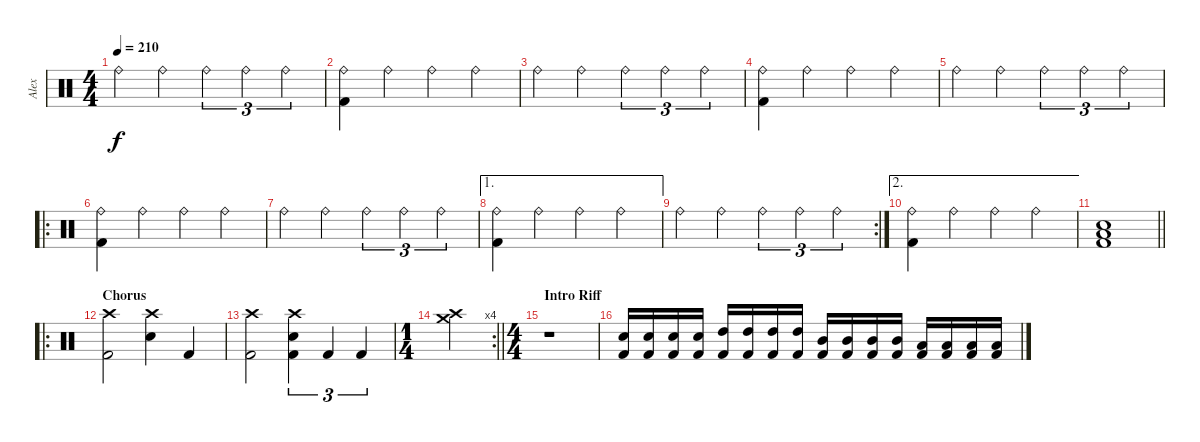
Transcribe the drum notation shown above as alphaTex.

\track ("Alex" "Alex") {instrument percussion}
\staff {score}
\articulation defaults
\ts (4 4)
\tempo 210
\clef neutral
\ks c "Ride (bell)".4{dy f} "Ride (bell)".4 "Ride (bell)".4{tu (3 2)} "Ride (bell)".4{tu (3 2)} "Ride (bell)".4{tu (3 2)}
|
("Ride (bell)" "Kick (hit) 2").4 "Ride (bell)".4 "Ride (bell)".4 "Ride (bell)".4 |
"Ride (bell)".4 "Ride (bell)".4 "Ride (bell)".4{tu (3 2)} "Ride (bell)".4{tu (3 2)} "Ride (bell)".4{tu (3 2)} |
("Ride (bell)" "Kick (hit) 2").4 "Ride (bell)".4 "Ride (bell)".4 "Ride (bell)".4 |
"Ride (bell)".4 "Ride (bell)".4 "Ride (bell)".4{tu (3 2)} "Ride (bell)".4{tu (3 2)} "Ride (bell)".4{tu (3 2)} |
\ro
("Ride (bell)" "Kick (hit) 2").4 "Ride (bell)".4 "Ride (bell)".4 "Ride (bell)".4 |
"Ride (bell)".4 "Ride (bell)".4 "Ride (bell)".4{tu (3 2)} "Ride (bell)".4{tu (3 2)} "Ride (bell)".4{tu (3 2)} |
\ae 1
("Ride (bell)" "Kick (hit) 2").4 "Ride (bell)".4 "Ride (bell)".4 "Ride (bell)".4 |
\rc 2 "Ride (bell)".4 "Ride (bell)".4 "Ride (bell)".4{tu (3 2)} "Ride (bell)".4{tu (3 2)} "Ride (bell)".4{tu (3 2)}
|
\ae 2
("Ride (bell)" "Kick (hit) 2").4 "Ride (bell)".4 "Ride (bell)".4 "Ride (bell)".4 |
\barLineRight lightlight
("Low Floor Tom (hit)" "Electric Snare (hit)" "Kick (hit) 2").1 |
\ro
\section ("" "Chorus")
("Crash high (hit)" "Kick (hit) 2").2 ("Crash high (hit)" "Electric Snare (hit)").4 "Kick (hit) 2".4 |
("Crash high (hit)" "Kick (hit) 2").2 ("Crash high (hit)" "Electric Snare (hit)" "Kick (hit) 2").4{tu (3 2)} "Kick (hit) 2".4{tu (3 2)} "Kick (hit) 2".4{tu (3 2)} |
\rc 4
\ts (1 4)
\barLineRight lightlight
("Crash high (hit)" "Crash medium (hit)").4 |
\ts (4 4)
\section ("" "Intro Riff")
r.1 |
("Electric Snare (hit)" "Kick (hit) 2").16 ("Electric Snare (hit)" "Kick (hit) 2").16 ("Electric Snare (hit)" "Kick (hit) 2").16 ("Electric Snare (hit)" "Kick (hit) 2").16 ("High Tom (hit)" "Kick (hit) 2").16 ("High Tom (hit)" "Kick (hit) 2").16 ("High Tom (hit)" "Kick (hit) 2").16 ("High Tom (hit)" "Kick (hit) 2").16 ("Mid Tom (hit)" "Kick (hit) 2").16 ("Mid Tom (hit)" "Kick (hit) 2").16 ("Mid Tom (hit)" "Kick (hit) 2").16 ("Mid Tom (hit)" "Kick (hit) 2").16 ("Low Tom (hit)" "Kick (hit) 2").16 ("Low Tom (hit)" "Kick (hit) 2").16 ("Low Tom (hit)" "Kick (hit) 2").16 ("Low Tom (hit)" "Kick (hit) 2").16
